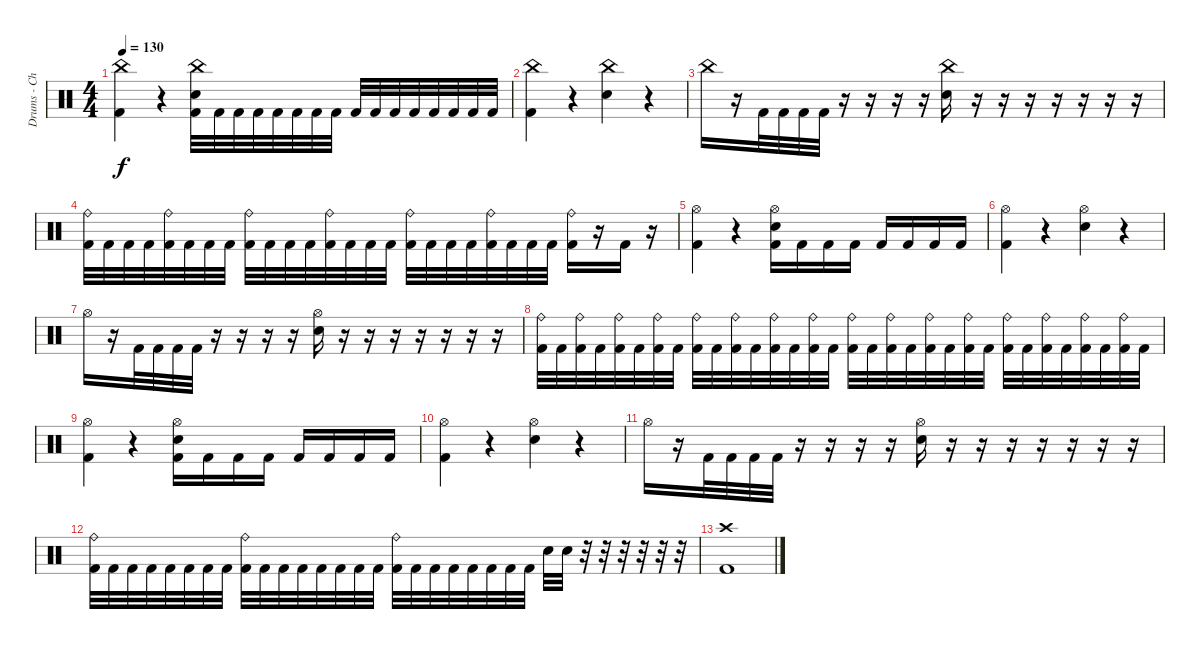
\track ("Drums - Chevelle Spiteri" "Drums - Ch") {instrument percussion}
\staff {score}
\articulation defaults
\ts (4 4)
\tempo 130
\clef neutral
\ks c
("China (hit)" "Kick (hit) 2").4{dy f} r.4 ("Snare (hit) 2" "China (hit)" "Kick (hit) 2").32 "Kick (hit) 2".32 "Kick (hit) 2".32 "Kick (hit) 2".32 "Kick (hit) 2".32 "Kick (hit) 2".32 "Kick (hit) 2".32 "Kick (hit) 2".32 "Kick (hit) 2".32 "Kick (hit) 2".32 "Kick (hit) 2".32 "Kick (hit) 2".32 "Kick (hit) 2".32 "Kick (hit) 2".32 "Kick (hit) 2".32 "Kick (hit) 2".32 |
("China (hit)" "Kick (hit) 2").4 r.4 ("China (hit)" "Snare (hit) 2").4 r.4 |
"China (hit)".16 r.16 "Kick (hit) 2".32 "Kick (hit) 2".32 "Kick (hit) 2".32 "Kick (hit) 2".32 r.16 r.16 r.16 r.16 ("China (hit)" "Snare (hit) 2").16 r.16 r.16 r.16 r.16 r.16 r.16 r.16 |
("Ride (bell)" "Kick (hit) 2").32 "Kick (hit) 2".32 "Kick (hit) 2".32 "Kick (hit) 2".32 ("Ride (bell)" "Kick (hit) 2").32 "Kick (hit) 2".32 "Kick (hit) 2".32 "Kick (hit) 2".32 ("Ride (bell)" "Kick (hit) 2").32 "Kick (hit) 2".32 "Kick (hit) 2".32 "Kick (hit) 2".32 ("Ride (bell)" "Kick (hit) 2").32 "Kick (hit) 2".32 "Kick (hit) 2".32 "Kick (hit) 2".32 ("Ride (bell)" "Kick (hit) 2").32 "Kick (hit) 2".32 "Kick (hit) 2".32 "Kick (hit) 2".32 ("Ride (bell)" "Kick (hit) 2").32 "Kick (hit) 2".32 "Kick (hit) 2".32 "Kick (hit) 2".32 ("Ride (bell)" "Kick (hit) 2").16 r.16 "Kick (hit) 2".16 r.16 |
("Hi-Hat (open)" "Kick (hit) 2").4 r.4 ("Snare (hit) 2" "Hi-Hat (open)" "Kick (hit) 2").16 "Kick (hit) 2".16 "Kick (hit) 2".16 "Kick (hit) 2".16 "Kick (hit) 2".16 "Kick (hit) 2".16 "Kick (hit) 2".16 "Kick (hit) 2".16 |
("Hi-Hat (open)" "Kick (hit) 2").4 r.4 ("Hi-Hat (open)" "Snare (hit) 2").4 r.4 |
"Hi-Hat (open)".16 r.16 "Kick (hit) 2".32 "Kick (hit) 2".32 "Kick (hit) 2".32 "Kick (hit) 2".32 r.16 r.16 r.16 r.16 ("Hi-Hat (open)" "Snare (hit) 2").16 r.16 r.16 r.16 r.16 r.16 r.16 r.16 |
("Ride (bell)" "Kick (hit) 2").32 "Kick (hit) 2".32 ("Ride (bell)" "Kick (hit) 2").32 "Kick (hit) 2".32 ("Ride (bell)" "Kick (hit) 2").32 "Kick (hit) 2".32 ("Ride (bell)" "Kick (hit) 2").32 "Kick (hit) 2".32 ("Ride (bell)" "Kick (hit) 2").32 "Kick (hit) 2".32 ("Ride (bell)" "Kick (hit) 2").32 "Kick (hit) 2".32 ("Ride (bell)" "Kick (hit) 2").32 "Kick (hit) 2".32 ("Ride (bell)" "Kick (hit) 2").32 "Kick (hit) 2".32 ("Ride (bell)" "Kick (hit) 2").32 "Kick (hit) 2".32 ("Ride (bell)" "Kick (hit) 2").32 "Kick (hit) 2".32 ("Ride (bell)" "Kick (hit) 2").32 "Kick (hit) 2".32 ("Ride (bell)" "Kick (hit) 2").32 "Kick (hit) 2".32 ("Ride (bell)" "Kick (hit) 2").32 "Kick (hit) 2".32 ("Ride (bell)" "Kick (hit) 2").32 "Kick (hit) 2".32 ("Ride (bell)" "Kick (hit) 2").32 "Kick (hit) 2".32 ("Ride (bell)" "Kick (hit) 2").32 "Kick (hit) 2".32 |
("Hi-Hat (open)" "Kick (hit) 2").4 r.4 ("Snare (hit) 2" "Hi-Hat (open)" "Kick (hit) 2").16 "Kick (hit) 2".16 "Kick (hit) 2".16 "Kick (hit) 2".16 "Kick (hit) 2".16 "Kick (hit) 2".16 "Kick (hit) 2".16 "Kick (hit) 2".16 |
("Hi-Hat (open)" "Kick (hit) 2").4 r.4 ("Hi-Hat (open)" "Snare (hit) 2").4 r.4 |
"Hi-Hat (open)".16 r.16 "Kick (hit) 2".32 "Kick (hit) 2".32 "Kick (hit) 2".32 "Kick (hit) 2".32 r.16 r.16 r.16 r.16 ("Hi-Hat (open)" "Snare (hit) 2").16 r.16 r.16 r.16 r.16 r.16 r.16 r.16 |
("Ride (bell)" "Kick (hit) 2").32 "Kick (hit) 2".32 "Kick (hit) 2".32 "Kick (hit) 2".32 "Kick (hit) 2".32 "Kick (hit) 2".32 "Kick (hit) 2".32 "Kick (hit) 2".32 ("Ride (bell)" "Kick (hit) 2").32 "Kick (hit) 2".32 "Kick (hit) 2".32 "Kick (hit) 2".32 "Kick (hit) 2".32 "Kick (hit) 2".32 "Kick (hit) 2".32 "Kick (hit) 2".32 ("Ride (bell)" "Kick (hit) 2").32 "Kick (hit) 2".32 "Kick (hit) 2".32 "Kick (hit) 2".32 "Kick (hit) 2".32 "Kick (hit) 2".32 "Kick (hit) 2".32 "Kick (hit) 2".32 "Snare (hit) 2".32 "Snare (hit) 2".32 r.32 r.32 r.32 r.32 r.32 r.32 |
("Crash high (hit)" "Kick (hit) 2").1
